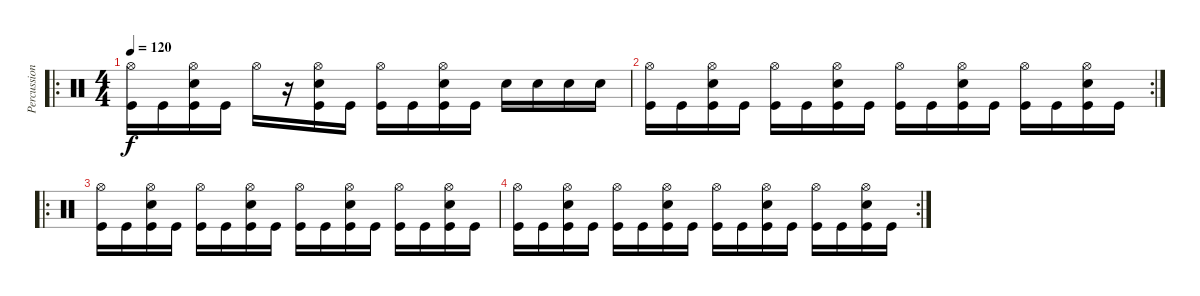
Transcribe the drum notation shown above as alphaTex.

\track ("Percussion" "Percussion") {instrument percussion}
\staff {score}
\articulation defaults
\ro
\ts (4 4)
\tempo 120
\clef neutral
\ks c
("Hi-Hat (open)" "Kick (hit)").16{dy f} "Kick (hit)".16 ("Hi-Hat (open)" "Snare (hit) 2" "Kick (hit)").16 "Kick (hit)".16 "Hi-Hat (open)".16 r.16 ("Hi-Hat (open)" "Snare (hit) 2" "Kick (hit)").16 "Kick (hit)".16 ("Hi-Hat (open)" "Kick (hit)").16 "Kick (hit)".16 ("Hi-Hat (open)" "Snare (hit) 2" "Kick (hit)").16 "Kick (hit)".16 "Snare (hit) 2".16 "Snare (hit) 2".16 "Snare (hit) 2".16 "Snare (hit) 2".16 |
\rc 2
("Hi-Hat (open)" "Kick (hit)").16 "Kick (hit)".16 ("Hi-Hat (open)" "Snare (hit) 2" "Kick (hit)").16 "Kick (hit)".16 ("Hi-Hat (open)" "Kick (hit)").16 "Kick (hit)".16 ("Hi-Hat (open)" "Snare (hit) 2" "Kick (hit)").16 "Kick (hit)".16 ("Hi-Hat (open)" "Kick (hit)").16 "Kick (hit)".16 ("Hi-Hat (open)" "Snare (hit) 2" "Kick (hit)").16 "Kick (hit)".16 ("Hi-Hat (open)" "Kick (hit)").16 "Kick (hit)".16 ("Hi-Hat (open)" "Snare (hit) 2" "Kick (hit)").16 "Kick (hit)".16 |
\ro
("Hi-Hat (open)" "Kick (hit)").16 "Kick (hit)".16 ("Hi-Hat (open)" "Snare (hit) 2" "Kick (hit)").16 "Kick (hit)".16 ("Hi-Hat (open)" "Kick (hit)").16 "Kick (hit)".16 ("Hi-Hat (open)" "Snare (hit) 2" "Kick (hit)").16 "Kick (hit)".16 ("Hi-Hat (open)" "Kick (hit)").16 "Kick (hit)".16 ("Hi-Hat (open)" "Snare (hit) 2" "Kick (hit)").16 "Kick (hit)".16 ("Hi-Hat (open)" "Kick (hit)").16 "Kick (hit)".16 ("Hi-Hat (open)" "Snare (hit) 2" "Kick (hit)").16 "Kick (hit)".16 |
\rc 2
("Hi-Hat (open)" "Kick (hit)").16 "Kick (hit)".16 ("Hi-Hat (open)" "Snare (hit) 2" "Kick (hit)").16 "Kick (hit)".16 ("Hi-Hat (open)" "Kick (hit)").16 "Kick (hit)".16 ("Hi-Hat (open)" "Snare (hit) 2" "Kick (hit)").16 "Kick (hit)".16 ("Hi-Hat (open)" "Kick (hit)").16 "Kick (hit)".16 ("Hi-Hat (open)" "Snare (hit) 2" "Kick (hit)").16 "Kick (hit)".16 ("Hi-Hat (open)" "Kick (hit)").16 "Kick (hit)".16 ("Hi-Hat (open)" "Snare (hit) 2" "Kick (hit)").16 "Kick (hit)".16
